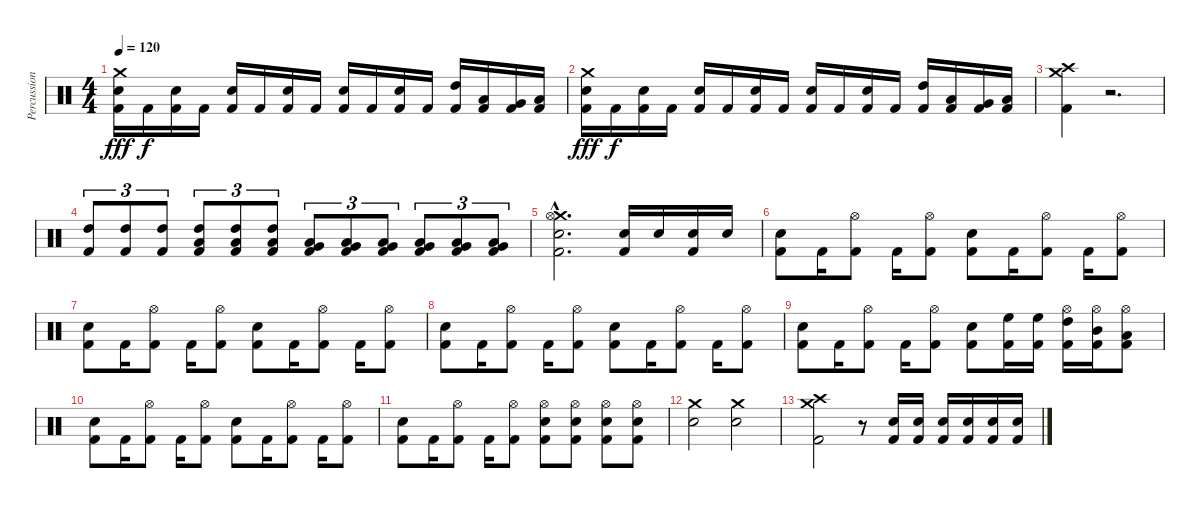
\track ("Percussions" "Percussion") {instrument percussion}
\staff {score}
\articulation defaults
\ts (4 4)
\tempo 120
\clef neutral
\ks c
("Kick (hit) 2" "Electric Snare (hit)" "Crash medium (hit)").16{dy fff} "Kick (hit) 2".16{dy f} ("Kick (hit) 2" "Snare (hit) 2").16 "Kick (hit) 2".16 ("Kick (hit) 2" "Electric Snare (hit)").16 "Kick (hit) 2".16 ("Kick (hit) 2" "Snare (hit) 2").16 "Kick (hit) 2".16 ("Kick (hit) 2" "Electric Snare (hit)").16 "Kick (hit) 2".16 ("Kick (hit) 2" "Snare (hit) 2").16 "Kick (hit) 2".16 ("Kick (hit) 2" "High Tom (hit)").16 ("Kick (hit) 2" "Low Tom (hit)").16 ("Kick (hit) 2" "Very Low Tom (hit)").16 ("Kick (hit) 2" "Low Floor Tom (hit)").16 |
("Kick (hit) 2" "Electric Snare (hit)" "Crash medium (hit)").16{dy fff} "Kick (hit) 2".16{dy f} ("Kick (hit) 2" "Snare (hit) 2").16 "Kick (hit) 2".16 ("Kick (hit) 2" "Electric Snare (hit)").16 "Kick (hit) 2".16 ("Kick (hit) 2" "Snare (hit) 2").16 "Kick (hit) 2".16 ("Kick (hit) 2" "Electric Snare (hit)").16 "Kick (hit) 2".16 ("Kick (hit) 2" "Snare (hit) 2").16 "Kick (hit) 2".16 ("Kick (hit) 2" "High Tom (hit)").16 ("Kick (hit) 2" "Low Tom (hit)").16 ("Kick (hit) 2" "Very Low Tom (hit)").16 ("Kick (hit) 2" "Low Floor Tom (hit)").16 |
("Kick (hit) 2" "Crash high (hit)" "Crash medium (hit)").4 r.2{d} |
("Kick (hit) 2" "High Tom (hit)").8{tu (3 2)} ("Kick (hit) 2" "High Tom (hit)").8{tu (3 2)} ("Kick (hit) 2" "High Tom (hit)").8{tu (3 2)} ("Kick (hit) 2" "High Tom (hit)" "Low Tom (hit)").8{tu (3 2)} ("Kick (hit) 2" "High Tom (hit)" "Low Tom (hit)").8{tu (3 2)} ("Kick (hit) 2" "High Tom (hit)" "Low Tom (hit)").8{tu (3 2)} ("Kick (hit) 2" "Low Tom (hit)" "Very Low Tom (hit)").8{tu (3 2)} ("Kick (hit) 2" "Low Tom (hit)" "Very Low Tom (hit)").8{tu (3 2)} ("Kick (hit) 2" "Low Tom (hit)" "Very Low Tom (hit)").8{tu (3 2)} ("Kick (hit) 2" "Very Low Tom (hit)" "Low Floor Tom (hit)").8{tu (3 2)} ("Kick (hit) 2" "Very Low Tom (hit)" "Low Floor Tom (hit)").8{tu (3 2)} ("Kick (hit) 2" "Very Low Tom (hit)" "Low Floor Tom (hit)").8{tu (3 2)} |
("Kick (hit) 2"{hac} "Snare (hit) 2"{hac} "Crash medium (hit)"{hac} "Hi-Hat (open)"{hac}).2{d} ("Kick (hit) 2" "Snare (hit) 2").16 "Snare (hit) 2".16 ("Kick (hit) 2" "Snare (hit) 2").16 "Snare (hit) 2".16 |
("Kick (hit) 2" "Snare (hit) 2").8 "Kick (hit) 2".16 ("Kick (hit) 2" "Hi-Hat (open)").8 "Kick (hit) 2".16 ("Kick (hit) 2" "Hi-Hat (open)").8 ("Kick (hit) 2" "Snare (hit) 2").8 "Kick (hit) 2".16 ("Kick (hit) 2" "Hi-Hat (open)").8 "Kick (hit) 2".16 ("Kick (hit) 2" "Hi-Hat (open)").8 |
("Kick (hit) 2" "Snare (hit) 2").8 "Kick (hit) 2".16 ("Kick (hit) 2" "Hi-Hat (open)").8 "Kick (hit) 2".16 ("Kick (hit) 2" "Hi-Hat (open)").8 ("Kick (hit) 2" "Snare (hit) 2").8 "Kick (hit) 2".16 ("Kick (hit) 2" "Hi-Hat (open)").8 "Kick (hit) 2".16 ("Kick (hit) 2" "Hi-Hat (open)").8 |
("Kick (hit) 2" "Snare (hit) 2").8 "Kick (hit) 2".16 ("Kick (hit) 2" "Hi-Hat (open)").8 "Kick (hit) 2".16 ("Kick (hit) 2" "Hi-Hat (open)").8 ("Kick (hit) 2" "Snare (hit) 2").8 "Kick (hit) 2".16 ("Kick (hit) 2" "Hi-Hat (open)").8 "Kick (hit) 2".16 ("Kick (hit) 2" "Hi-Hat (open)").8 |
("Kick (hit) 2" "Snare (hit) 2").8 "Kick (hit) 2".16 ("Kick (hit) 2" "Hi-Hat (open)").8 "Kick (hit) 2".16 ("Kick (hit) 2" "Hi-Hat (open)").8 ("Kick (hit) 2" "Snare (hit) 2").8 ("Kick (hit) 2" "High Floor Tom (hit)").16 ("Kick (hit) 2" "High Floor Tom (hit)").16 ("Kick (hit) 2" "High Tom (hit)" "Hi-Hat (open)").16 ("Kick (hit) 2" "Mid Tom (hit)" "Hi-Hat (open)").16 ("Kick (hit) 2" "Low Floor Tom (hit)" "Hi-Hat (open)").8 |
("Kick (hit) 2" "Snare (hit) 2").8 "Kick (hit) 2".16 ("Kick (hit) 2" "Hi-Hat (open)").8 "Kick (hit) 2".16 ("Kick (hit) 2" "Hi-Hat (open)").8 ("Kick (hit) 2" "Snare (hit) 2").8 "Kick (hit) 2".16 ("Kick (hit) 2" "Hi-Hat (open)").8 "Kick (hit) 2".16 ("Kick (hit) 2" "Hi-Hat (open)").8 |
("Kick (hit) 2" "Snare (hit) 2").8 "Kick (hit) 2".16 ("Kick (hit) 2" "Hi-Hat (open)").8 "Kick (hit) 2".16 ("Kick (hit) 2" "Hi-Hat (open)").8 ("Kick (hit) 2" "Snare (hit) 2" "Hi-Hat (open)").8 ("Kick (hit) 2" "Snare (hit) 2" "Hi-Hat (open)").8 ("Kick (hit) 2" "Snare (hit) 2" "Hi-Hat (open)").8 ("Kick (hit) 2" "Snare (hit) 2" "Hi-Hat (open)").8 |
("Electric Snare (hit)" "Crash medium (hit)").2 ("Electric Snare (hit)" "Crash medium (hit)").2 |
("Kick (hit) 2" "Crash high (hit)" "Crash medium (hit)").2 r.8 ("Kick (hit) 2" "Electric Snare (hit)").16 ("Kick (hit) 2" "Electric Snare (hit)").16 ("Kick (hit) 2" "Electric Snare (hit)").16 ("Kick (hit) 2" "Electric Snare (hit)").16 ("Kick (hit) 2" "Electric Snare (hit)").16 ("Kick (hit) 2" "Electric Snare (hit)").16
